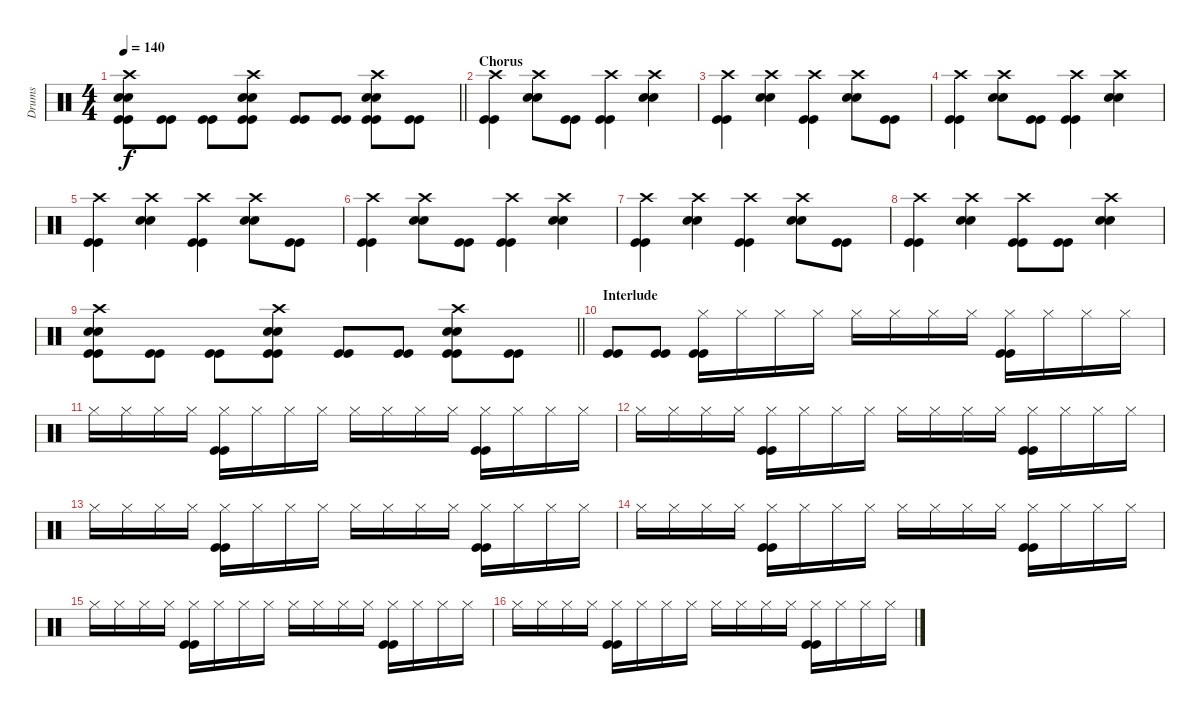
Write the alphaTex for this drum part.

\track ("Drums" "Drums") {instrument percussion}
\staff {score}
\articulation defaults
\ts (4 4)
\tempo 140
\clef neutral
\barLineRight lightlight
\ks c
("Crash high (hit)" "Snare (hit) 2" "Snare (hit) 2" "Kick (hit)" "Kick (hit)").8{dy f} ("Kick (hit)" "Kick (hit)").8 ("Kick (hit)" "Kick (hit)").8 ("Crash high (hit)" "Snare (hit) 2" "Snare (hit) 2" "Kick (hit)" "Kick (hit)").8 ("Kick (hit)" "Kick (hit)").8 ("Kick (hit)" "Kick (hit)").8 ("Crash high (hit)" "Snare (hit) 2" "Snare (hit) 2" "Kick (hit)" "Kick (hit)").8 ("Kick (hit)" "Kick (hit)").8 |
\section ("" "Chorus")
("Crash high (hit)" "Kick (hit)" "Kick (hit)").4 ("Crash high (hit)" "Snare (hit) 2" "Snare (hit) 2").8 ("Kick (hit)" "Kick (hit)").8 ("Crash high (hit)" "Kick (hit)" "Kick (hit)").4 ("Crash high (hit)" "Snare (hit) 2" "Snare (hit) 2").4 |
("Crash high (hit)" "Kick (hit)" "Kick (hit)").4 ("Crash high (hit)" "Snare (hit) 2" "Snare (hit) 2").4 ("Crash high (hit)" "Kick (hit)" "Kick (hit)").4 ("Crash high (hit)" "Snare (hit) 2" "Snare (hit) 2").8 ("Kick (hit)" "Kick (hit)").8 |
("Crash high (hit)" "Kick (hit)" "Kick (hit)").4 ("Crash high (hit)" "Snare (hit) 2" "Snare (hit) 2").8 ("Kick (hit)" "Kick (hit)").8 ("Crash high (hit)" "Kick (hit)" "Kick (hit)").4 ("Crash high (hit)" "Snare (hit) 2" "Snare (hit) 2").4 |
("Crash high (hit)" "Kick (hit)" "Kick (hit)").4 ("Crash high (hit)" "Snare (hit) 2" "Snare (hit) 2").4 ("Crash high (hit)" "Kick (hit)" "Kick (hit)").4 ("Crash high (hit)" "Snare (hit) 2" "Snare (hit) 2").8 ("Kick (hit)" "Kick (hit)").8 |
("Crash high (hit)" "Kick (hit)" "Kick (hit)").4 ("Crash high (hit)" "Snare (hit) 2" "Snare (hit) 2").8 ("Kick (hit)" "Kick (hit)").8 ("Crash high (hit)" "Kick (hit)" "Kick (hit)").4 ("Crash high (hit)" "Snare (hit) 2" "Snare (hit) 2").4 |
("Crash high (hit)" "Kick (hit)" "Kick (hit)").4 ("Crash high (hit)" "Snare (hit) 2" "Snare (hit) 2").4 ("Crash high (hit)" "Kick (hit)" "Kick (hit)").4 ("Crash high (hit)" "Snare (hit) 2" "Snare (hit) 2").8 ("Kick (hit)" "Kick (hit)").8 |
("Crash high (hit)" "Kick (hit)" "Kick (hit)").4 ("Crash high (hit)" "Snare (hit) 2" "Snare (hit) 2").4 ("Crash high (hit)" "Kick (hit)" "Kick (hit)").8 ("Kick (hit)" "Kick (hit)").8 ("Crash high (hit)" "Snare (hit) 2" "Snare (hit) 2").4 |
\barLineRight lightlight
("Crash high (hit)" "Snare (hit) 2" "Snare (hit) 2" "Kick (hit)" "Kick (hit)").8 ("Kick (hit)" "Kick (hit)").8 ("Kick (hit)" "Kick (hit)").8 ("Crash high (hit)" "Snare (hit) 2" "Snare (hit) 2" "Kick (hit)" "Kick (hit)").8 ("Kick (hit)" "Kick (hit)").8 ("Kick (hit)" "Kick (hit)").8 ("Crash high (hit)" "Snare (hit) 2" "Snare (hit) 2" "Kick (hit)" "Kick (hit)").8 ("Kick (hit)" "Kick (hit)").8 |
\section ("" "Interlude")
("Kick (hit)" "Kick (hit)").8 ("Kick (hit)" "Kick (hit)").8 ("Hi-Hat (closed)" "Kick (hit)" "Kick (hit)").16 "Hi-Hat (closed)".16 "Hi-Hat (closed)".16 "Hi-Hat (closed)".16 "Hi-Hat (closed)".16 "Hi-Hat (closed)".16 "Hi-Hat (closed)".16 "Hi-Hat (closed)".16 ("Hi-Hat (closed)" "Kick (hit)" "Kick (hit)").16 "Hi-Hat (closed)".16 "Hi-Hat (closed)".16 "Hi-Hat (closed)".16 |
"Hi-Hat (closed)".16 "Hi-Hat (closed)".16 "Hi-Hat (closed)".16 "Hi-Hat (closed)".16 ("Hi-Hat (closed)" "Kick (hit)" "Kick (hit)").16 "Hi-Hat (closed)".16 "Hi-Hat (closed)".16 "Hi-Hat (closed)".16 "Hi-Hat (closed)".16 "Hi-Hat (closed)".16 "Hi-Hat (closed)".16 "Hi-Hat (closed)".16 ("Hi-Hat (closed)" "Kick (hit)" "Kick (hit)").16 "Hi-Hat (closed)".16 "Hi-Hat (closed)".16 "Hi-Hat (closed)".16 |
"Hi-Hat (closed)".16 "Hi-Hat (closed)".16 "Hi-Hat (closed)".16 "Hi-Hat (closed)".16 ("Hi-Hat (closed)" "Kick (hit)" "Kick (hit)").16 "Hi-Hat (closed)".16 "Hi-Hat (closed)".16 "Hi-Hat (closed)".16 "Hi-Hat (closed)".16 "Hi-Hat (closed)".16 "Hi-Hat (closed)".16 "Hi-Hat (closed)".16 ("Hi-Hat (closed)" "Kick (hit)" "Kick (hit)").16 "Hi-Hat (closed)".16 "Hi-Hat (closed)".16 "Hi-Hat (closed)".16 |
"Hi-Hat (closed)".16 "Hi-Hat (closed)".16 "Hi-Hat (closed)".16 "Hi-Hat (closed)".16 ("Hi-Hat (closed)" "Kick (hit)" "Kick (hit)").16 "Hi-Hat (closed)".16 "Hi-Hat (closed)".16 "Hi-Hat (closed)".16 "Hi-Hat (closed)".16 "Hi-Hat (closed)".16 "Hi-Hat (closed)".16 "Hi-Hat (closed)".16 ("Hi-Hat (closed)" "Kick (hit)" "Kick (hit)").16 "Hi-Hat (closed)".16 "Hi-Hat (closed)".16 "Hi-Hat (closed)".16 |
"Hi-Hat (closed)".16 "Hi-Hat (closed)".16 "Hi-Hat (closed)".16 "Hi-Hat (closed)".16 ("Hi-Hat (closed)" "Kick (hit)" "Kick (hit)").16 "Hi-Hat (closed)".16 "Hi-Hat (closed)".16 "Hi-Hat (closed)".16 "Hi-Hat (closed)".16 "Hi-Hat (closed)".16 "Hi-Hat (closed)".16 "Hi-Hat (closed)".16 ("Hi-Hat (closed)" "Kick (hit)" "Kick (hit)").16 "Hi-Hat (closed)".16 "Hi-Hat (closed)".16 "Hi-Hat (closed)".16 |
"Hi-Hat (closed)".16 "Hi-Hat (closed)".16 "Hi-Hat (closed)".16 "Hi-Hat (closed)".16 ("Hi-Hat (closed)" "Kick (hit)" "Kick (hit)").16 "Hi-Hat (closed)".16 "Hi-Hat (closed)".16 "Hi-Hat (closed)".16 "Hi-Hat (closed)".16 "Hi-Hat (closed)".16 "Hi-Hat (closed)".16 "Hi-Hat (closed)".16 ("Hi-Hat (closed)" "Kick (hit)" "Kick (hit)").16 "Hi-Hat (closed)".16 "Hi-Hat (closed)".16 "Hi-Hat (closed)".16 |
"Hi-Hat (closed)".16 "Hi-Hat (closed)".16 "Hi-Hat (closed)".16 "Hi-Hat (closed)".16 ("Hi-Hat (closed)" "Kick (hit)" "Kick (hit)").16 "Hi-Hat (closed)".16 "Hi-Hat (closed)".16 "Hi-Hat (closed)".16 "Hi-Hat (closed)".16 "Hi-Hat (closed)".16 "Hi-Hat (closed)".16 "Hi-Hat (closed)".16 ("Hi-Hat (closed)" "Kick (hit)" "Kick (hit)").16 "Hi-Hat (closed)".16 "Hi-Hat (closed)".16 "Hi-Hat (closed)".16
